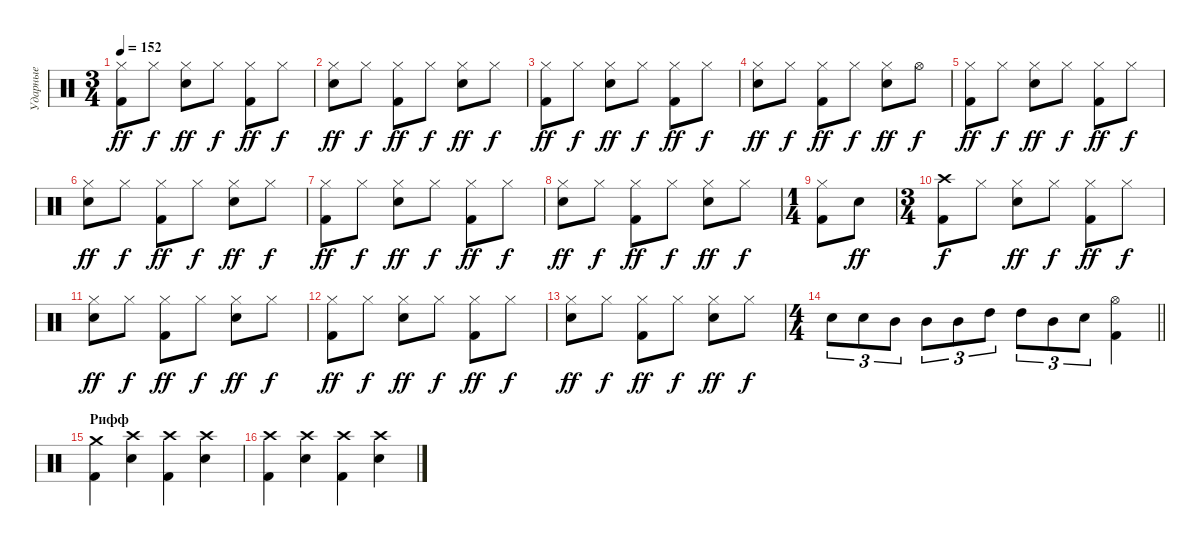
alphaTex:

\track ("Ударные" "Ударные") {instrument percussion}
\staff {score}
\articulation defaults
\ts (3 4)
\tempo 152
\clef neutral
\ks c
("Hi-Hat (closed)" "Kick (hit) 2").8{dy ff} "Hi-Hat (closed)".8{dy f} ("Hi-Hat (closed)" "Snare (hit) 2").8{dy ff} "Hi-Hat (closed)".8{dy f} ("Hi-Hat (closed)" "Kick (hit) 2").8{dy ff} "Hi-Hat (closed)".8{dy f} |
("Hi-Hat (closed)" "Snare (hit) 2").8{dy ff} "Hi-Hat (closed)".8{dy f} ("Hi-Hat (closed)" "Kick (hit) 2").8{dy ff} "Hi-Hat (closed)".8{dy f} ("Hi-Hat (closed)" "Snare (hit) 2").8{dy ff} "Hi-Hat (closed)".8{dy f} |
("Hi-Hat (closed)" "Kick (hit) 2").8{dy ff} "Hi-Hat (closed)".8{dy f} ("Hi-Hat (closed)" "Snare (hit) 2").8{dy ff} "Hi-Hat (closed)".8{dy f} ("Hi-Hat (closed)" "Kick (hit) 2").8{dy ff} "Hi-Hat (closed)".8{dy f} |
("Hi-Hat (closed)" "Snare (hit) 2").8{dy ff} "Hi-Hat (closed)".8{dy f} ("Hi-Hat (closed)" "Kick (hit) 2").8{dy ff} "Hi-Hat (closed)".8{dy f} ("Hi-Hat (closed)" "Snare (hit) 2").8{dy ff} "Hi-Hat (open)".8{dy f} |
("Hi-Hat (closed)" "Kick (hit) 2").8{dy ff} "Hi-Hat (closed)".8{dy f} ("Hi-Hat (closed)" "Snare (hit) 2").8{dy ff} "Hi-Hat (closed)".8{dy f} ("Hi-Hat (closed)" "Kick (hit) 2").8{dy ff} "Hi-Hat (closed)".8{dy f} |
("Hi-Hat (closed)" "Snare (hit) 2").8{dy ff} "Hi-Hat (closed)".8{dy f} ("Hi-Hat (closed)" "Kick (hit) 2").8{dy ff} "Hi-Hat (closed)".8{dy f} ("Hi-Hat (closed)" "Snare (hit) 2").8{dy ff} "Hi-Hat (closed)".8{dy f} |
("Hi-Hat (closed)" "Kick (hit) 2").8{dy ff} "Hi-Hat (closed)".8{dy f} ("Hi-Hat (closed)" "Snare (hit) 2").8{dy ff} "Hi-Hat (closed)".8{dy f} ("Hi-Hat (closed)" "Kick (hit) 2").8{dy ff} "Hi-Hat (closed)".8{dy f} |
("Hi-Hat (closed)" "Snare (hit) 2").8{dy ff} "Hi-Hat (closed)".8{dy f} ("Hi-Hat (closed)" "Kick (hit) 2").8{dy ff} "Hi-Hat (closed)".8{dy f} ("Hi-Hat (closed)" "Snare (hit) 2").8{dy ff} "Hi-Hat (closed)".8{dy f} |
\ts (1 4)
("Hi-Hat (closed)" "Kick (hit) 2").8 "Snare (hit) 2".8{dy ff} |
\ts (3 4)
("Crash high (hit)" "Kick (hit) 2").8{dy f} "Hi-Hat (closed)".8 ("Hi-Hat (closed)" "Snare (hit) 2").8{dy ff} "Hi-Hat (closed)".8{dy f} ("Hi-Hat (closed)" "Kick (hit) 2").8{dy ff} "Hi-Hat (closed)".8{dy f} |
("Hi-Hat (closed)" "Snare (hit) 2").8{dy ff} "Hi-Hat (closed)".8{dy f} ("Hi-Hat (closed)" "Kick (hit) 2").8{dy ff} "Hi-Hat (closed)".8{dy f} ("Hi-Hat (closed)" "Snare (hit) 2").8{dy ff} "Hi-Hat (closed)".8{dy f} |
("Hi-Hat (closed)" "Kick (hit) 2").8{dy ff} "Hi-Hat (closed)".8{dy f} ("Hi-Hat (closed)" "Snare (hit) 2").8{dy ff} "Hi-Hat (closed)".8{dy f} ("Hi-Hat (closed)" "Kick (hit) 2").8{dy ff} "Hi-Hat (closed)".8{dy f} |
("Hi-Hat (closed)" "Snare (hit) 2").8{dy ff} "Hi-Hat (closed)".8{dy f} ("Hi-Hat (closed)" "Kick (hit) 2").8{dy ff} "Hi-Hat (closed)".8{dy f} ("Hi-Hat (closed)" "Snare (hit) 2").8{dy ff} "Hi-Hat (closed)".8{dy f} |
\ts (4 4)
\barLineRight lightlight "Snare (hit) 2".8{tu (3 2)} "Snare (hit) 2".8{tu (3 2)} "Mid Tom (hit)".8{tu (3 2)} "Mid Tom (hit)".8{tu (3 2)} "Mid Tom (hit)".8{tu (3 2)} "High Tom (hit)".8{tu (3 2)} "High Tom (hit)".8{tu (3 2)} "Mid Tom (hit)".8{tu (3 2)} "Snare (hit) 2".8{tu (3 2)}
("Hi-Hat (open)" "Kick (hit) 2").4 |
\section ("" "Рифф")
("Crash medium (hit)" "Kick (hit) 2").4 ("Crash high (hit)" "Snare (hit) 2").4 ("Crash high (hit)" "Kick (hit) 2").4 ("Crash high (hit)" "Snare (hit) 2").4 |
("Crash high (hit)" "Kick (hit) 2").4 ("Crash high (hit)" "Snare (hit) 2").4 ("Crash high (hit)" "Kick (hit) 2").4 ("Crash high (hit)" "Snare (hit) 2").4
